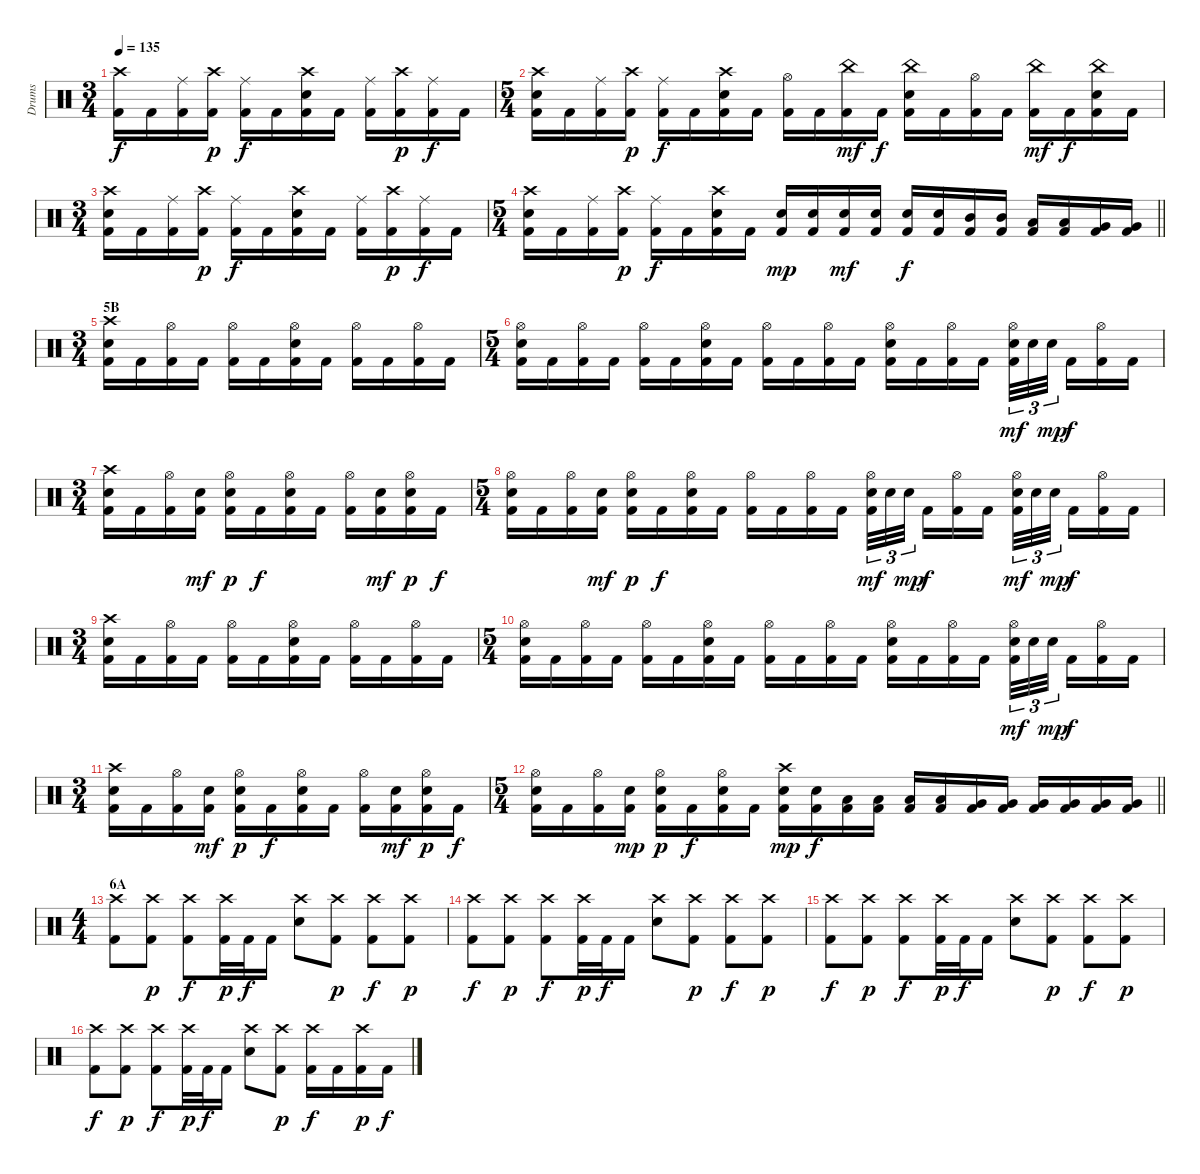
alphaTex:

\track ("Drums" "Drums") {instrument percussion}
\staff {score}
\articulation defaults
\ts (3 4)
\tempo 135
\clef neutral
\ks c
("Crash high (hit)" "Kick (hit) 2").16{dy f} "Kick (hit) 2".16 ("Ride (middle)" "Kick (hit) 2").16 ("Crash high (hit)" "Kick (hit) 2").16{dy p} ("Ride (middle)" "Kick (hit) 2").16{dy f} "Kick (hit) 2".16 ("Crash high (hit)" "Electric Snare (hit)" "Kick (hit) 2").16 "Kick (hit) 2".16 ("Ride (middle)" "Kick (hit) 2").16 ("Crash high (hit)" "Kick (hit) 2").16{dy p} ("Ride (middle)" "Kick (hit) 2").16{dy f} "Kick (hit) 2".16 |
\ts (5 4)
("Crash high (hit)" "Electric Snare (hit)" "Kick (hit) 2").16 "Kick (hit) 2".16 ("Ride (middle)" "Kick (hit) 2").16 ("Crash high (hit)" "Kick (hit) 2").16{dy p} ("Ride (middle)" "Kick (hit) 2").16{dy f} "Kick (hit) 2".16 ("Crash high (hit)" "Electric Snare (hit)" "Kick (hit) 2").16 "Kick (hit) 2".16 ("Hi-Hat (open)" "Kick (hit) 2").16 "Kick (hit) 2".16 ("China (hit)" "Kick (hit) 2").16{dy mf} "Kick (hit) 2".16{dy f} ("China (hit)" "Electric Snare (hit)" "Kick (hit) 2").16 "Kick (hit) 2".16 ("Hi-Hat (open)" "Kick (hit) 2").16 "Kick (hit) 2".16 ("China (hit)" "Kick (hit) 2").16{dy mf} "Kick (hit) 2".16{dy f} ("China (hit)" "Electric Snare (hit)" "Kick (hit) 2").16 "Kick (hit) 2".16 |
\ts (3 4)
("Crash high (hit)" "Electric Snare (hit)" "Kick (hit) 2").16 "Kick (hit) 2".16 ("Ride (middle)" "Kick (hit) 2").16 ("Crash high (hit)" "Kick (hit) 2").16{dy p} ("Ride (middle)" "Kick (hit) 2").16{dy f} "Kick (hit) 2".16 ("Crash high (hit)" "Electric Snare (hit)" "Kick (hit) 2").16 "Kick (hit) 2".16 ("Ride (middle)" "Kick (hit) 2").16 ("Crash high (hit)" "Kick (hit) 2").16{dy p} ("Ride (middle)" "Kick (hit) 2").16{dy f} "Kick (hit) 2".16 |
\ts (5 4)
\barLineRight lightlight
("Crash high (hit)" "Electric Snare (hit)" "Kick (hit) 2").16 "Kick (hit) 2".16 ("Ride (middle)" "Kick (hit) 2").16 ("Crash high (hit)" "Kick (hit) 2").16{dy p} ("Ride (middle)" "Kick (hit) 2").16{dy f} "Kick (hit) 2".16 ("Crash high (hit)" "Electric Snare (hit)" "Kick (hit) 2").16 "Kick (hit) 2".16 ("Electric Snare (hit)" "Kick (hit) 2").16{dy mp} ("Electric Snare (hit)" "Kick (hit) 2").16 ("Electric Snare (hit)" "Kick (hit) 2").16{dy mf} ("Electric Snare (hit)" "Kick (hit) 2").16 ("Electric Snare (hit)" "Kick (hit) 2").16{dy f} ("Electric Snare (hit)" "Kick (hit) 2").16 ("Mid Tom (hit)" "Kick (hit) 2").16 ("Mid Tom (hit)" "Kick (hit) 2").16 ("Low Tom (hit)" "Kick (hit) 2").16 ("Low Tom (hit)" "Kick (hit) 2").16 ("Very Low Tom (hit)" "Kick (hit) 2").16 ("Very Low Tom (hit)" "Kick (hit) 2").16 |
\ts (3 4)
\section ("" "5B")
("Crash high (hit)" "Electric Snare (hit)" "Kick (hit) 2").16 "Kick (hit) 2".16 ("Hi-Hat (open)" "Kick (hit) 2").16 "Kick (hit) 2".16 ("Hi-Hat (open)" "Kick (hit) 2").16 "Kick (hit) 2".16 ("Hi-Hat (open)" "Electric Snare (hit)" "Kick (hit) 2").16 "Kick (hit) 2".16 ("Hi-Hat (open)" "Kick (hit) 2").16 "Kick (hit) 2".16 ("Hi-Hat (open)" "Kick (hit) 2").16 "Kick (hit) 2".16 |
\ts (5 4)
("Hi-Hat (open)" "Electric Snare (hit)" "Kick (hit) 2").16 "Kick (hit) 2".16 ("Hi-Hat (open)" "Kick (hit) 2").16 "Kick (hit) 2".16 ("Hi-Hat (open)" "Kick (hit) 2").16 "Kick (hit) 2".16 ("Hi-Hat (open)" "Electric Snare (hit)" "Kick (hit) 2").16 "Kick (hit) 2".16 ("Hi-Hat (open)" "Kick (hit) 2").16 "Kick (hit) 2".16 ("Hi-Hat (open)" "Kick (hit) 2").16 "Kick (hit) 2".16 ("Hi-Hat (open)" "Electric Snare (hit)" "Kick (hit) 2").16 "Kick (hit) 2".16 ("Hi-Hat (open)" "Kick (hit) 2").16 "Kick (hit) 2".16 ("Hi-Hat (open)" "Electric Snare (hit)" "Kick (hit) 2").32{tu (3 2) dy mf} "Electric Snare (hit)".32{tu (3 2)} "Electric Snare (hit)".32{tu (3 2) dy mp beam splitsecondary} "Kick (hit) 2".16{dy f} ("Hi-Hat (open)" "Kick (hit) 2").16 "Kick (hit) 2".16 |
\ts (3 4)
("Crash high (hit)" "Electric Snare (hit)" "Kick (hit) 2").16 "Kick (hit) 2".16 ("Hi-Hat (open)" "Kick (hit) 2").16 ("Electric Snare (hit)" "Kick (hit) 2").16{dy mf} ("Hi-Hat (open)" "Electric Snare (hit)" "Kick (hit) 2").16{dy p} "Kick (hit) 2".16{dy f} ("Hi-Hat (open)" "Electric Snare (hit)" "Kick (hit) 2").16 "Kick (hit) 2".16 ("Hi-Hat (open)" "Kick (hit) 2").16 ("Electric Snare (hit)" "Kick (hit) 2").16{dy mf} ("Hi-Hat (open)" "Electric Snare (hit)" "Kick (hit) 2").16{dy p} "Kick (hit) 2".16{dy f} |
\ts (5 4)
("Hi-Hat (open)" "Electric Snare (hit)" "Kick (hit) 2").16 "Kick (hit) 2".16 ("Hi-Hat (open)" "Kick (hit) 2").16 ("Electric Snare (hit)" "Kick (hit) 2").16{dy mf} ("Hi-Hat (open)" "Electric Snare (hit)" "Kick (hit) 2").16{dy p} "Kick (hit) 2".16{dy f} ("Hi-Hat (open)" "Electric Snare (hit)" "Kick (hit) 2").16 "Kick (hit) 2".16 ("Hi-Hat (open)" "Kick (hit) 2").16 "Kick (hit) 2".16 ("Hi-Hat (open)" "Kick (hit) 2").16 "Kick (hit) 2".16 ("Hi-Hat (open)" "Electric Snare (hit)" "Kick (hit) 2").32{tu (3 2) dy mf} "Electric Snare (hit)".32{tu (3 2)} "Electric Snare (hit)".32{tu (3 2) dy mp beam splitsecondary} "Kick (hit) 2".16{dy f} ("Hi-Hat (open)" "Kick (hit) 2").16 "Kick (hit) 2".16 ("Hi-Hat (open)" "Electric Snare (hit)" "Kick (hit) 2").32{tu (3 2) dy mf} "Electric Snare (hit)".32{tu (3 2)} "Electric Snare (hit)".32{tu (3 2) dy mp beam splitsecondary} "Kick (hit) 2".16{dy f} ("Hi-Hat (open)" "Kick (hit) 2").16 "Kick (hit) 2".16 |
\ts (3 4)
("Crash high (hit)" "Electric Snare (hit)" "Kick (hit) 2").16 "Kick (hit) 2".16 ("Hi-Hat (open)" "Kick (hit) 2").16 "Kick (hit) 2".16 ("Hi-Hat (open)" "Kick (hit) 2").16 "Kick (hit) 2".16 ("Hi-Hat (open)" "Electric Snare (hit)" "Kick (hit) 2").16 "Kick (hit) 2".16 ("Hi-Hat (open)" "Kick (hit) 2").16 "Kick (hit) 2".16 ("Hi-Hat (open)" "Kick (hit) 2").16 "Kick (hit) 2".16 |
\ts (5 4)
("Hi-Hat (open)" "Electric Snare (hit)" "Kick (hit) 2").16 "Kick (hit) 2".16 ("Hi-Hat (open)" "Kick (hit) 2").16 "Kick (hit) 2".16 ("Hi-Hat (open)" "Kick (hit) 2").16 "Kick (hit) 2".16 ("Hi-Hat (open)" "Electric Snare (hit)" "Kick (hit) 2").16 "Kick (hit) 2".16 ("Hi-Hat (open)" "Kick (hit) 2").16 "Kick (hit) 2".16 ("Hi-Hat (open)" "Kick (hit) 2").16 "Kick (hit) 2".16 ("Hi-Hat (open)" "Electric Snare (hit)" "Kick (hit) 2").16 "Kick (hit) 2".16 ("Hi-Hat (open)" "Kick (hit) 2").16 "Kick (hit) 2".16 ("Hi-Hat (open)" "Electric Snare (hit)" "Kick (hit) 2").32{tu (3 2) dy mf} "Electric Snare (hit)".32{tu (3 2)} "Electric Snare (hit)".32{tu (3 2) dy mp beam splitsecondary} "Kick (hit) 2".16{dy f} ("Hi-Hat (open)" "Kick (hit) 2").16 "Kick (hit) 2".16 |
\ts (3 4)
("Crash high (hit)" "Electric Snare (hit)" "Kick (hit) 2").16 "Kick (hit) 2".16 ("Hi-Hat (open)" "Kick (hit) 2").16 ("Electric Snare (hit)" "Kick (hit) 2").16{dy mf} ("Hi-Hat (open)" "Electric Snare (hit)" "Kick (hit) 2").16{dy p} "Kick (hit) 2".16{dy f} ("Hi-Hat (open)" "Electric Snare (hit)" "Kick (hit) 2").16 "Kick (hit) 2".16 ("Hi-Hat (open)" "Kick (hit) 2").16 ("Electric Snare (hit)" "Kick (hit) 2").16{dy mf} ("Hi-Hat (open)" "Electric Snare (hit)" "Kick (hit) 2").16{dy p} "Kick (hit) 2".16{dy f} |
\ts (5 4)
\barLineRight lightlight
("Hi-Hat (open)" "Electric Snare (hit)" "Kick (hit) 2").16 "Kick (hit) 2".16 ("Hi-Hat (open)" "Kick (hit) 2").16 ("Electric Snare (hit)" "Kick (hit) 2").16{dy mp} ("Hi-Hat (open)" "Electric Snare (hit)" "Kick (hit) 2").16{dy p} "Kick (hit) 2".16{dy f} ("Hi-Hat (open)" "Electric Snare (hit)" "Kick (hit) 2").16 "Kick (hit) 2".16 ("Crash high (hit)" "Electric Snare (hit)" "Kick (hit) 2").16{dy mp} ("Electric Snare (hit)" "Kick (hit) 2").16{dy f} ("Low Tom (hit)" "Kick (hit) 2").16 ("Low Tom (hit)" "Kick (hit) 2").16 ("Low Tom (hit)" "Kick (hit) 2").16 ("Low Tom (hit)" "Kick (hit) 2").16 ("Very Low Tom (hit)" "Kick (hit) 2").16 ("Very Low Tom (hit)" "Kick (hit) 2").16 ("Very Low Tom (hit)" "Kick (hit) 2").16 ("Very Low Tom (hit)" "Kick (hit) 2").16 ("Very Low Tom (hit)" "Kick (hit) 2").16 ("Very Low Tom (hit)" "Kick (hit) 2").16 |
\ts (4 4)
\section ("" "6A")
("Crash high (hit)" "Kick (hit) 2").8 ("Crash high (hit)" "Kick (hit) 2").8{dy p} ("Crash high (hit)" "Kick (hit) 2").8{dy f} ("Crash high (hit)" "Kick (hit) 2").32{dy p} "Kick (hit) 2".32{dy f} "Kick (hit) 2".16 ("Crash high (hit)" "Electric Snare (hit)").8 ("Crash high (hit)" "Kick (hit) 2").8{dy p} ("Crash high (hit)" "Kick (hit) 2").8{dy f} ("Crash high (hit)" "Kick (hit) 2").8{dy p} |
("Crash high (hit)" "Kick (hit) 2").8{dy f} ("Crash high (hit)" "Kick (hit) 2").8{dy p} ("Crash high (hit)" "Kick (hit) 2").8{dy f} ("Crash high (hit)" "Kick (hit) 2").32{dy p} "Kick (hit) 2".32{dy f} "Kick (hit) 2".16 ("Crash high (hit)" "Electric Snare (hit)").8 ("Crash high (hit)" "Kick (hit) 2").8{dy p} ("Crash high (hit)" "Kick (hit) 2").8{dy f} ("Crash high (hit)" "Kick (hit) 2").8{dy p} |
("Crash high (hit)" "Kick (hit) 2").8{dy f} ("Crash high (hit)" "Kick (hit) 2").8{dy p} ("Crash high (hit)" "Kick (hit) 2").8{dy f} ("Crash high (hit)" "Kick (hit) 2").32{dy p} "Kick (hit) 2".32{dy f} "Kick (hit) 2".16 ("Crash high (hit)" "Electric Snare (hit)").8 ("Crash high (hit)" "Kick (hit) 2").8{dy p} ("Crash high (hit)" "Kick (hit) 2").8{dy f} ("Crash high (hit)" "Kick (hit) 2").8{dy p} |
("Crash high (hit)" "Kick (hit) 2").8{dy f} ("Crash high (hit)" "Kick (hit) 2").8{dy p} ("Crash high (hit)" "Kick (hit) 2").8{dy f} ("Crash high (hit)" "Kick (hit) 2").32{dy p} "Kick (hit) 2".32{dy f} "Kick (hit) 2".16 ("Crash high (hit)" "Electric Snare (hit)").8 ("Crash high (hit)" "Kick (hit) 2").8{dy p} ("Crash high (hit)" "Kick (hit) 2").16{dy f} "Kick (hit) 2".16 ("Crash high (hit)" "Kick (hit) 2").16{dy p} "Kick (hit) 2".16{dy f}
